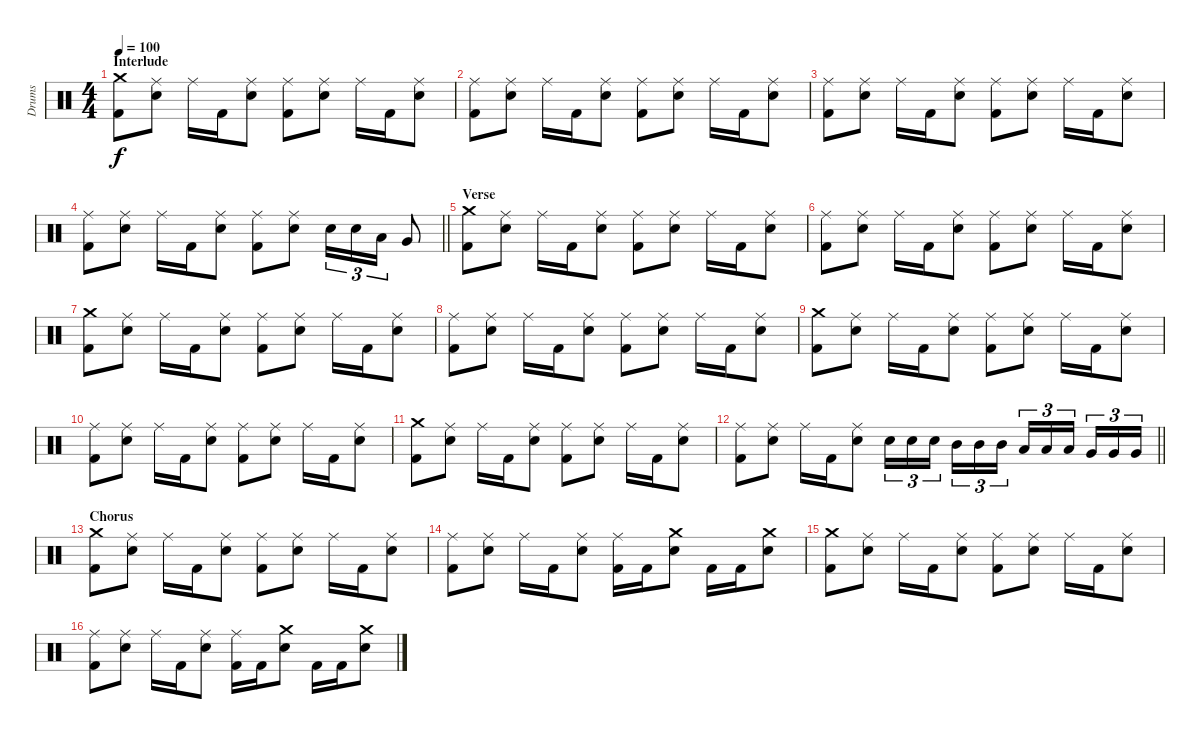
\track ("Drums" "Drums") {instrument percussion}
\staff {score}
\articulation defaults
\ts (4 4)
\section ("" "Interlude")
\tempo 100
\clef neutral
\ks c
("Crash medium (hit)" "Kick (hit) 2").8{dy f} ("Ride (middle)" "Electric Snare (hit)").8 "Ride (middle)".16 "Kick (hit) 2".16 ("Ride (middle)" "Electric Snare (hit)").8 ("Ride (middle)" "Kick (hit) 2").8 ("Ride (middle)" "Electric Snare (hit)").8 "Ride (middle)".16 "Kick (hit) 2".16 ("Ride (middle)" "Electric Snare (hit)").8 |
("Ride (middle)" "Kick (hit) 2").8 ("Ride (middle)" "Electric Snare (hit)").8 "Ride (middle)".16 "Kick (hit) 2".16 ("Ride (middle)" "Electric Snare (hit)").8 ("Ride (middle)" "Kick (hit) 2").8 ("Ride (middle)" "Electric Snare (hit)").8 "Ride (middle)".16 "Kick (hit) 2".16 ("Ride (middle)" "Electric Snare (hit)").8 |
("Ride (middle)" "Kick (hit) 2").8 ("Ride (middle)" "Electric Snare (hit)").8 "Ride (middle)".16 "Kick (hit) 2".16 ("Ride (middle)" "Electric Snare (hit)").8 ("Ride (middle)" "Kick (hit) 2").8 ("Ride (middle)" "Electric Snare (hit)").8 "Ride (middle)".16 "Kick (hit) 2".16 ("Ride (middle)" "Electric Snare (hit)").8 |
\barLineRight lightlight
("Ride (middle)" "Kick (hit) 2").8 ("Ride (middle)" "Electric Snare (hit)").8 "Ride (middle)".16 "Kick (hit) 2".16 ("Ride (middle)" "Electric Snare (hit)").8 ("Ride (middle)" "Kick (hit) 2").8 ("Ride (middle)" "Electric Snare (hit)").8 "Electric Snare (hit)".16{tu (3 2)} "Electric Snare (hit)".16{tu (3 2)} "Low Tom (hit)".16{tu (3 2)} "Very Low Tom (hit)".8 |
\section ("" "Verse")
("Crash medium (hit)" "Kick (hit) 2").8 ("Ride (middle)" "Electric Snare (hit)").8 "Ride (middle)".16 "Kick (hit) 2".16 ("Ride (middle)" "Electric Snare (hit)").8 ("Ride (middle)" "Kick (hit) 2").8 ("Ride (middle)" "Electric Snare (hit)").8 "Ride (middle)".16 "Kick (hit) 2".16 ("Ride (middle)" "Electric Snare (hit)").8 |
("Ride (middle)" "Kick (hit) 2").8 ("Ride (middle)" "Electric Snare (hit)").8 "Ride (middle)".16 "Kick (hit) 2".16 ("Ride (middle)" "Electric Snare (hit)").8 ("Ride (middle)" "Kick (hit) 2").8 ("Ride (middle)" "Electric Snare (hit)").8 "Ride (middle)".16 "Kick (hit) 2".16 ("Ride (middle)" "Electric Snare (hit)").8 |
("Crash medium (hit)" "Kick (hit) 2").8 ("Ride (middle)" "Electric Snare (hit)").8 "Ride (middle)".16 "Kick (hit) 2".16 ("Ride (middle)" "Electric Snare (hit)").8 ("Ride (middle)" "Kick (hit) 2").8 ("Ride (middle)" "Electric Snare (hit)").8 "Ride (middle)".16 "Kick (hit) 2".16 ("Ride (middle)" "Electric Snare (hit)").8 |
("Ride (middle)" "Kick (hit) 2").8 ("Ride (middle)" "Electric Snare (hit)").8 "Ride (middle)".16 "Kick (hit) 2".16 ("Ride (middle)" "Electric Snare (hit)").8 ("Ride (middle)" "Kick (hit) 2").8 ("Ride (middle)" "Electric Snare (hit)").8 "Ride (middle)".16 "Kick (hit) 2".16 ("Ride (middle)" "Electric Snare (hit)").8 |
("Crash medium (hit)" "Kick (hit) 2").8 ("Ride (middle)" "Electric Snare (hit)").8 "Ride (middle)".16 "Kick (hit) 2".16 ("Ride (middle)" "Electric Snare (hit)").8 ("Ride (middle)" "Kick (hit) 2").8 ("Ride (middle)" "Electric Snare (hit)").8 "Ride (middle)".16 "Kick (hit) 2".16 ("Ride (middle)" "Electric Snare (hit)").8 |
("Ride (middle)" "Kick (hit) 2").8 ("Ride (middle)" "Electric Snare (hit)").8 "Ride (middle)".16 "Kick (hit) 2".16 ("Ride (middle)" "Electric Snare (hit)").8 ("Ride (middle)" "Kick (hit) 2").8 ("Ride (middle)" "Electric Snare (hit)").8 "Ride (middle)".16 "Kick (hit) 2".16 ("Ride (middle)" "Electric Snare (hit)").8 |
("Crash medium (hit)" "Kick (hit) 2").8 ("Ride (middle)" "Electric Snare (hit)").8 "Ride (middle)".16 "Kick (hit) 2".16 ("Ride (middle)" "Electric Snare (hit)").8 ("Ride (middle)" "Kick (hit) 2").8 ("Ride (middle)" "Electric Snare (hit)").8 "Ride (middle)".16 "Kick (hit) 2".16 ("Ride (middle)" "Electric Snare (hit)").8 |
\barLineRight lightlight
("Ride (middle)" "Kick (hit) 2").8 ("Ride (middle)" "Electric Snare (hit)").8 "Ride (middle)".16 "Kick (hit) 2".16 ("Ride (middle)" "Electric Snare (hit)").8 "Electric Snare (hit)".16{tu (3 2)} "Electric Snare (hit)".16{tu (3 2)} "Electric Snare (hit)".16{tu (3 2)} "Mid Tom (hit)".16{tu (3 2)} "Mid Tom (hit)".16{tu (3 2)} "Mid Tom (hit)".16{tu (3 2)} "Low Tom (hit)".16{tu (3 2)} "Low Tom (hit)".16{tu (3 2)} "Low Tom (hit)".16{tu (3 2)} "Very Low Tom (hit)".16{tu (3 2)} "Very Low Tom (hit)".16{tu (3 2)} "Very Low Tom (hit)".16{tu (3 2)} |
\section ("" "Chorus")
("Crash medium (hit)" "Kick (hit) 2").8 ("Ride (middle)" "Electric Snare (hit)").8 "Ride (middle)".16 "Kick (hit) 2".16 ("Ride (middle)" "Electric Snare (hit)").8 ("Ride (middle)" "Kick (hit) 2").8 ("Ride (middle)" "Electric Snare (hit)").8 "Ride (middle)".16 "Kick (hit) 2".16 ("Ride (middle)" "Electric Snare (hit)").8 |
("Ride (middle)" "Kick (hit) 2").8 ("Ride (middle)" "Electric Snare (hit)").8 "Ride (middle)".16 "Kick (hit) 2".16 ("Ride (middle)" "Electric Snare (hit)").8 ("Ride (middle)" "Kick (hit) 2").16 "Kick (hit) 2".16 ("Crash medium (hit)" "Electric Snare (hit)").8 "Kick (hit) 2".16 "Kick (hit) 2".16 ("Crash medium (hit)" "Electric Snare (hit)").8 |
("Crash medium (hit)" "Kick (hit) 2").8 ("Ride (middle)" "Electric Snare (hit)").8 "Ride (middle)".16 "Kick (hit) 2".16 ("Ride (middle)" "Electric Snare (hit)").8 ("Ride (middle)" "Kick (hit) 2").8 ("Ride (middle)" "Electric Snare (hit)").8 "Ride (middle)".16 "Kick (hit) 2".16 ("Ride (middle)" "Electric Snare (hit)").8 |
("Ride (middle)" "Kick (hit) 2").8 ("Ride (middle)" "Electric Snare (hit)").8 "Ride (middle)".16 "Kick (hit) 2".16 ("Ride (middle)" "Electric Snare (hit)").8 ("Ride (middle)" "Kick (hit) 2").16 "Kick (hit) 2".16 ("Crash medium (hit)" "Electric Snare (hit)").8 "Kick (hit) 2".16 "Kick (hit) 2".16 ("Crash medium (hit)" "Electric Snare (hit)").8
